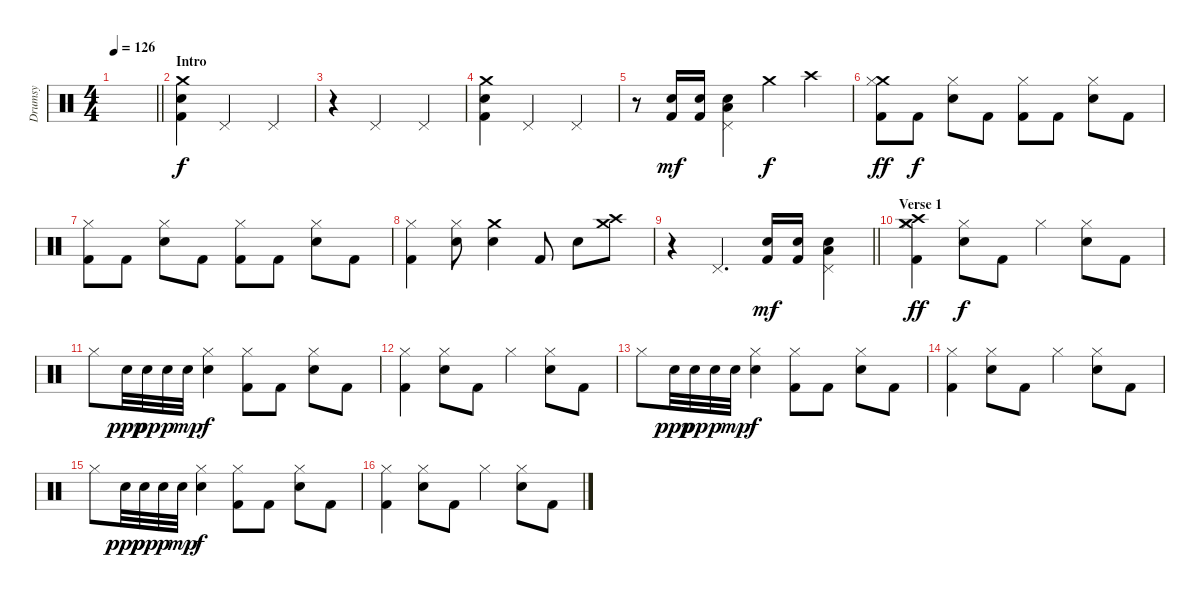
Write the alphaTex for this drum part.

\track ("Drumsy" "Drumsy") {instrument percussion}
\staff {score}
\articulation defaults
\ts (4 4)
\tempo 126
\clef neutral
\barLineRight lightlight
\ks c
|
\section ("" "Intro")
("Crash medium (hit)" "Electric Snare (hit)" "Kick (hit) 2").4 "Pedal Hi-Hat (hit)".2 "Pedal Hi-Hat (hit)".4 |
r.4 "Pedal Hi-Hat (hit)".2 "Pedal Hi-Hat (hit)".4 |
("Crash medium (hit)" "Electric Snare (hit)" "Kick (hit) 2").4 "Pedal Hi-Hat (hit)".2 "Pedal Hi-Hat (hit)".4 |
r.8 ("Electric Snare (hit)" "Kick (hit) 2").16{dy mf} ("Electric Snare (hit)" "Kick (hit) 2").16 ("Pedal Hi-Hat (hit)" "Electric Snare (hit)" "Low Tom (hit)").4 "Crash medium (hit)".4{dy f} "Crash high (hit)".4 |
("Crash medium (hit)" "Hi-Hat (closed)" "Kick (hit) 2").8{dy ff} "Kick (hit) 2".8{dy f} ("Hi-Hat (closed)" "Electric Snare (hit)").8 "Kick (hit) 2".8 ("Hi-Hat (closed)" "Kick (hit) 2").8 "Kick (hit) 2".8 ("Hi-Hat (closed)" "Electric Snare (hit)").8 "Kick (hit) 2".8 |
("Hi-Hat (closed)" "Kick (hit) 2").8 "Kick (hit) 2".8 ("Hi-Hat (closed)" "Electric Snare (hit)").8 "Kick (hit) 2".8 ("Hi-Hat (closed)" "Kick (hit) 2").8 "Kick (hit) 2".8 ("Hi-Hat (closed)" "Electric Snare (hit)").8 "Kick (hit) 2".8 |
("Hi-Hat (closed)" "Kick (hit) 2").4 ("Hi-Hat (closed)" "Electric Snare (hit)").8 ("Crash medium (hit)" "Snare (hit) 2").4 "Kick (hit) 2".8 "Electric Snare (hit)".8 ("Crash high (hit)" "Crash medium (hit)").8 |
\barLineRight lightlight
r.4 "Pedal Hi-Hat (hit)".4{d} ("Electric Snare (hit)" "Kick (hit) 2").16{dy mf} ("Electric Snare (hit)" "Kick (hit) 2").16 ("Pedal Hi-Hat (hit)" "Electric Snare (hit)" "Low Tom (hit)").4 |
\section ("" "Verse 1")
("Crash medium (hit)" "Hi-Hat (closed)" "Crash high (hit)" "Kick (hit) 2").4{dy ff} ("Hi-Hat (closed)" "Electric Snare (hit)").8{dy f} "Kick (hit) 2".8 "Hi-Hat (closed)".4 ("Hi-Hat (closed)" "Electric Snare (hit)").8 "Kick (hit) 2".8 |
"Hi-Hat (closed)".8 "Snare (hit) 2".32{dy ppp} "Snare (hit) 2".32{dy pp} "Snare (hit) 2".32{dy p} "Snare (hit) 2".32{dy mp} ("Hi-Hat (closed)" "Electric Snare (hit)").4{dy f} ("Hi-Hat (closed)" "Kick (hit) 2").8 "Kick (hit) 2".8 ("Hi-Hat (closed)" "Electric Snare (hit)").8 "Kick (hit) 2".8 |
("Hi-Hat (closed)" "Kick (hit) 2").4 ("Hi-Hat (closed)" "Electric Snare (hit)").8 "Kick (hit) 2".8 "Hi-Hat (closed)".4 ("Hi-Hat (closed)" "Electric Snare (hit)").8 "Kick (hit) 2".8 |
"Hi-Hat (closed)".8 "Snare (hit) 2".32{dy ppp} "Snare (hit) 2".32{dy pp} "Snare (hit) 2".32{dy p} "Snare (hit) 2".32{dy mp} ("Hi-Hat (closed)" "Electric Snare (hit)").4{dy f} ("Hi-Hat (closed)" "Kick (hit) 2").8 "Kick (hit) 2".8 ("Hi-Hat (closed)" "Electric Snare (hit)").8 "Kick (hit) 2".8 |
("Hi-Hat (closed)" "Kick (hit) 2").4 ("Hi-Hat (closed)" "Electric Snare (hit)").8 "Kick (hit) 2".8 "Hi-Hat (closed)".4 ("Hi-Hat (closed)" "Electric Snare (hit)").8 "Kick (hit) 2".8 |
"Hi-Hat (closed)".8 "Snare (hit) 2".32{dy ppp} "Snare (hit) 2".32{dy pp} "Snare (hit) 2".32{dy p} "Snare (hit) 2".32{dy mp} ("Hi-Hat (closed)" "Electric Snare (hit)").4{dy f} ("Hi-Hat (closed)" "Kick (hit) 2").8 "Kick (hit) 2".8 ("Hi-Hat (closed)" "Electric Snare (hit)").8 "Kick (hit) 2".8 |
("Hi-Hat (closed)" "Kick (hit) 2").4 ("Hi-Hat (closed)" "Electric Snare (hit)").8 "Kick (hit) 2".8 "Hi-Hat (closed)".4 ("Hi-Hat (closed)" "Electric Snare (hit)").8 "Kick (hit) 2".8
